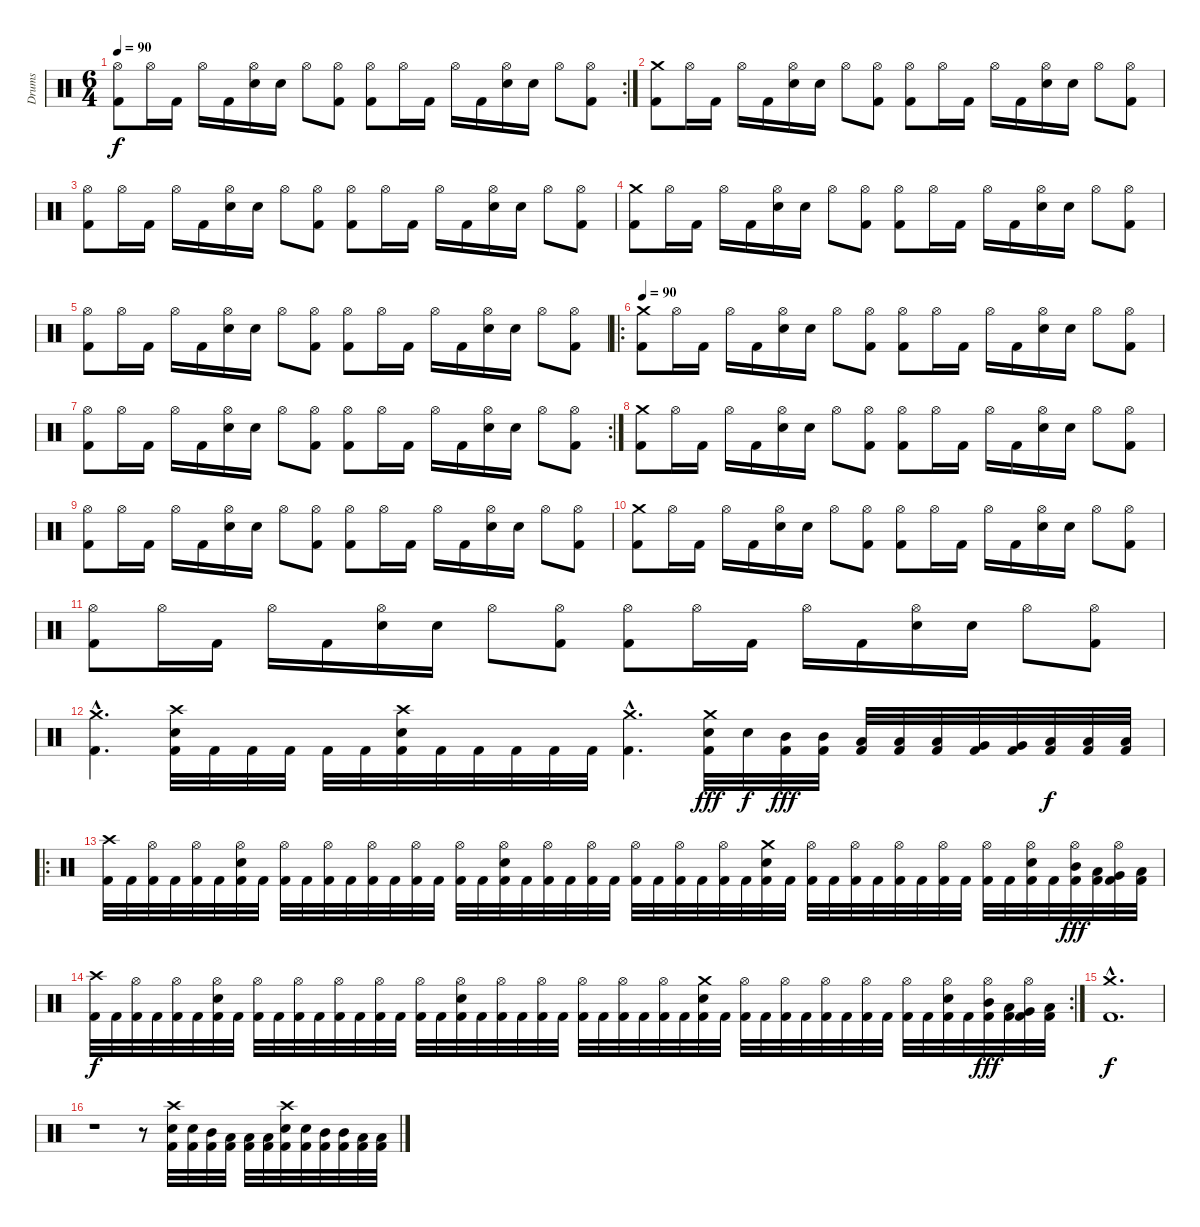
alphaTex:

\track ("Drums" "Drums") {instrument percussion}
\staff {score}
\articulation defaults
\rc 2
\ts (6 4)
\tempo 90
\clef neutral
\ks c
("Hi-Hat (open)" "Kick (hit) 2").8{dy f} "Hi-Hat (open)".16 "Kick (hit) 2".16 "Hi-Hat (open)".16 "Kick (hit) 2".16 ("Hi-Hat (open)" "Electric Snare (hit)").16 "Electric Snare (hit)".16 "Hi-Hat (open)".8 ("Hi-Hat (open)" "Kick (hit) 2").8 ("Hi-Hat (open)" "Kick (hit) 2").8 "Hi-Hat (open)".16 "Kick (hit) 2".16 "Hi-Hat (open)".16 "Kick (hit) 2".16 ("Hi-Hat (open)" "Electric Snare (hit)").16 "Electric Snare (hit)".16 "Hi-Hat (open)".8 ("Hi-Hat (open)" "Kick (hit) 2").8 |
("Crash medium (hit)" "Kick (hit) 2").8 "Hi-Hat (open)".16 "Kick (hit) 2".16 "Hi-Hat (open)".16 "Kick (hit) 2".16 ("Hi-Hat (open)" "Electric Snare (hit)").16 "Electric Snare (hit)".16 "Hi-Hat (open)".8 ("Hi-Hat (open)" "Kick (hit) 2").8 ("Hi-Hat (open)" "Kick (hit) 2").8 "Hi-Hat (open)".16 "Kick (hit) 2".16 "Hi-Hat (open)".16 "Kick (hit) 2".16 ("Hi-Hat (open)" "Electric Snare (hit)").16 "Electric Snare (hit)".16 "Hi-Hat (open)".8 ("Hi-Hat (open)" "Kick (hit) 2").8 |
("Hi-Hat (open)" "Kick (hit) 2").8 "Hi-Hat (open)".16 "Kick (hit) 2".16 "Hi-Hat (open)".16 "Kick (hit) 2".16 ("Hi-Hat (open)" "Electric Snare (hit)").16 "Electric Snare (hit)".16 "Hi-Hat (open)".8 ("Hi-Hat (open)" "Kick (hit) 2").8 ("Hi-Hat (open)" "Kick (hit) 2").8 "Hi-Hat (open)".16 "Kick (hit) 2".16 "Hi-Hat (open)".16 "Kick (hit) 2".16 ("Hi-Hat (open)" "Electric Snare (hit)").16 "Electric Snare (hit)".16 "Hi-Hat (open)".8 ("Hi-Hat (open)" "Kick (hit) 2").8 |
("Crash medium (hit)" "Kick (hit) 2").8 "Hi-Hat (open)".16 "Kick (hit) 2".16 "Hi-Hat (open)".16 "Kick (hit) 2".16 ("Hi-Hat (open)" "Electric Snare (hit)").16 "Electric Snare (hit)".16 "Hi-Hat (open)".8 ("Hi-Hat (open)" "Kick (hit) 2").8 ("Hi-Hat (open)" "Kick (hit) 2").8 "Hi-Hat (open)".16 "Kick (hit) 2".16 "Hi-Hat (open)".16 "Kick (hit) 2".16 ("Hi-Hat (open)" "Electric Snare (hit)").16 "Electric Snare (hit)".16 "Hi-Hat (open)".8 ("Hi-Hat (open)" "Kick (hit) 2").8 |
("Hi-Hat (open)" "Kick (hit) 2").8 "Hi-Hat (open)".16 "Kick (hit) 2".16 "Hi-Hat (open)".16 "Kick (hit) 2".16 ("Hi-Hat (open)" "Electric Snare (hit)").16 "Electric Snare (hit)".16 "Hi-Hat (open)".8 ("Hi-Hat (open)" "Kick (hit) 2").8 ("Hi-Hat (open)" "Kick (hit) 2").8 "Hi-Hat (open)".16 "Kick (hit) 2".16 "Hi-Hat (open)".16 "Kick (hit) 2".16 ("Hi-Hat (open)" "Electric Snare (hit)").16 "Electric Snare (hit)".16 "Hi-Hat (open)".8 ("Hi-Hat (open)" "Kick (hit) 2").8 |
\ro
\tempo 90
("Crash medium (hit)" "Kick (hit) 2").8 "Hi-Hat (open)".16 "Kick (hit) 2".16 "Hi-Hat (open)".16 "Kick (hit) 2".16 ("Hi-Hat (open)" "Electric Snare (hit)").16 "Electric Snare (hit)".16 "Hi-Hat (open)".8 ("Hi-Hat (open)" "Kick (hit) 2").8 ("Hi-Hat (open)" "Kick (hit) 2").8 "Hi-Hat (open)".16 "Kick (hit) 2".16 "Hi-Hat (open)".16 "Kick (hit) 2".16 ("Hi-Hat (open)" "Electric Snare (hit)").16 "Electric Snare (hit)".16 "Hi-Hat (open)".8 ("Hi-Hat (open)" "Kick (hit) 2").8 |
\rc 2
("Hi-Hat (open)" "Kick (hit) 2").8 "Hi-Hat (open)".16 "Kick (hit) 2".16 "Hi-Hat (open)".16 "Kick (hit) 2".16 ("Hi-Hat (open)" "Electric Snare (hit)").16 "Electric Snare (hit)".16 "Hi-Hat (open)".8 ("Hi-Hat (open)" "Kick (hit) 2").8 ("Hi-Hat (open)" "Kick (hit) 2").8 "Hi-Hat (open)".16 "Kick (hit) 2".16 "Hi-Hat (open)".16 "Kick (hit) 2".16 ("Hi-Hat (open)" "Electric Snare (hit)").16 "Electric Snare (hit)".16 "Hi-Hat (open)".8 ("Hi-Hat (open)" "Kick (hit) 2").8 |
("Crash medium (hit)" "Kick (hit) 2").8 "Hi-Hat (open)".16 "Kick (hit) 2".16 "Hi-Hat (open)".16 "Kick (hit) 2".16 ("Hi-Hat (open)" "Electric Snare (hit)").16 "Electric Snare (hit)".16 "Hi-Hat (open)".8 ("Hi-Hat (open)" "Kick (hit) 2").8 ("Hi-Hat (open)" "Kick (hit) 2").8 "Hi-Hat (open)".16 "Kick (hit) 2".16 "Hi-Hat (open)".16 "Kick (hit) 2".16 ("Hi-Hat (open)" "Electric Snare (hit)").16 "Electric Snare (hit)".16 "Hi-Hat (open)".8 ("Hi-Hat (open)" "Kick (hit) 2").8 |
("Hi-Hat (open)" "Kick (hit) 2").8 "Hi-Hat (open)".16 "Kick (hit) 2".16 "Hi-Hat (open)".16 "Kick (hit) 2".16 ("Hi-Hat (open)" "Electric Snare (hit)").16 "Electric Snare (hit)".16 "Hi-Hat (open)".8 ("Hi-Hat (open)" "Kick (hit) 2").8 ("Hi-Hat (open)" "Kick (hit) 2").8 "Hi-Hat (open)".16 "Kick (hit) 2".16 "Hi-Hat (open)".16 "Kick (hit) 2".16 ("Hi-Hat (open)" "Electric Snare (hit)").16 "Electric Snare (hit)".16 "Hi-Hat (open)".8 ("Hi-Hat (open)" "Kick (hit) 2").8 |
("Crash medium (hit)" "Kick (hit) 2").8 "Hi-Hat (open)".16 "Kick (hit) 2".16 "Hi-Hat (open)".16 "Kick (hit) 2".16 ("Hi-Hat (open)" "Electric Snare (hit)").16 "Electric Snare (hit)".16 "Hi-Hat (open)".8 ("Hi-Hat (open)" "Kick (hit) 2").8 ("Hi-Hat (open)" "Kick (hit) 2").8 "Hi-Hat (open)".16 "Kick (hit) 2".16 "Hi-Hat (open)".16 "Kick (hit) 2".16 ("Hi-Hat (open)" "Electric Snare (hit)").16 "Electric Snare (hit)".16 "Hi-Hat (open)".8 ("Hi-Hat (open)" "Kick (hit) 2").8 |
("Hi-Hat (open)" "Kick (hit) 2").8 "Hi-Hat (open)".16 "Kick (hit) 2".16 "Hi-Hat (open)".16 "Kick (hit) 2".16 ("Hi-Hat (open)" "Electric Snare (hit)").16 "Electric Snare (hit)".16 "Hi-Hat (open)".8 ("Hi-Hat (open)" "Kick (hit) 2").8 ("Hi-Hat (open)" "Kick (hit) 2").8 "Hi-Hat (open)".16 "Kick (hit) 2".16 "Hi-Hat (open)".16 "Kick (hit) 2".16 ("Hi-Hat (open)" "Electric Snare (hit)").16 "Electric Snare (hit)".16 "Hi-Hat (open)".8 ("Hi-Hat (open)" "Kick (hit) 2").8 |
("Crash medium (hit)"{hac} "Kick (hit) 2"{hac}).4{d} ("Crash high (hit)" "Electric Snare (hit)" "Kick (hit) 2").32 "Kick (hit) 2".32 "Kick (hit) 2".32 "Kick (hit) 2".32 "Kick (hit) 2".32 "Kick (hit) 2".32 ("Crash high (hit)" "Electric Snare (hit)" "Kick (hit) 2").32 "Kick (hit) 2".32 "Kick (hit) 2".32 "Kick (hit) 2".32 "Kick (hit) 2".32 "Kick (hit) 2".32 ("Crash medium (hit)"{hac} "Kick (hit) 2"{hac}).4{d} ("Crash medium (hit)" "Electric Snare (hit)" "Kick (hit) 2").32{dy fff} "Electric Snare (hit)".32{dy f} ("Mid Tom (hit)" "Kick (hit) 2").32{dy fff} ("Mid Tom (hit)" "Kick (hit) 2").32 ("Low Tom (hit)" "Kick (hit) 2").32 ("Low Tom (hit)" "Kick (hit) 2").32 ("Low Tom (hit)" "Kick (hit) 2").32 ("Very Low Tom (hit)" "Kick (hit) 2").32 ("Very Low Tom (hit)" "Kick (hit) 2").32 ("Low Floor Tom (hit)" "Kick (hit) 2").32{dy f} ("Low Floor Tom (hit)" "Kick (hit) 2").32 ("Low Floor Tom (hit)" "Kick (hit) 2").32 |
\ro
("Crash high (hit)" "Kick (hit) 2").32 "Kick (hit) 2".32 ("Hi-Hat (open)" "Kick (hit) 2").32 "Kick (hit) 2".32 ("Hi-Hat (open)" "Kick (hit) 2").32 "Kick (hit) 2".32 ("Hi-Hat (open)" "Electric Snare (hit)" "Kick (hit) 2").32 "Kick (hit) 2".32 ("Hi-Hat (open)" "Kick (hit) 2").32 "Kick (hit) 2".32 ("Hi-Hat (open)" "Kick (hit) 2").32 "Kick (hit) 2".32 ("Hi-Hat (open)" "Kick (hit) 2").32 "Kick (hit) 2".32 ("Hi-Hat (open)" "Kick (hit) 2").32 "Kick (hit) 2".32 ("Hi-Hat (open)" "Kick (hit) 2").32 "Kick (hit) 2".32 ("Hi-Hat (open)" "Electric Snare (hit)" "Kick (hit) 2").32 "Kick (hit) 2".32 ("Hi-Hat (open)" "Kick (hit) 2").32 "Kick (hit) 2".32 ("Hi-Hat (open)" "Kick (hit) 2").32 "Kick (hit) 2".32 ("Hi-Hat (open)" "Kick (hit) 2").32 "Kick (hit) 2".32 ("Hi-Hat (open)" "Kick (hit) 2").32 "Kick (hit) 2".32 ("Hi-Hat (open)" "Kick (hit) 2").32 "Kick (hit) 2".32 ("Crash medium (hit)" "Electric Snare (hit)" "Kick (hit) 2").32 "Kick (hit) 2".32 ("Hi-Hat (open)" "Kick (hit) 2").32 "Kick (hit) 2".32 ("Hi-Hat (open)" "Kick (hit) 2").32 "Kick (hit) 2".32 ("Hi-Hat (open)" "Kick (hit) 2").32 "Kick (hit) 2".32 ("Hi-Hat (open)" "Kick (hit) 2").32 "Kick (hit) 2".32 ("Hi-Hat (open)" "Kick (hit) 2").32 "Kick (hit) 2".32 ("Hi-Hat (open)" "Electric Snare (hit)" "Kick (hit) 2").32 "Kick (hit) 2".32 ("Hi-Hat (open)" "Mid Tom (hit)" "Kick (hit) 2").32{dy fff} ("Low Tom (hit)" "Kick (hit) 2").32 ("Hi-Hat (open)" "Very Low Tom (hit)" "Kick (hit) 2").32 ("Low Floor Tom (hit)" "Kick (hit) 2").32 |
\rc 2
("Crash high (hit)" "Kick (hit) 2").32{dy f} "Kick (hit) 2".32 ("Hi-Hat (open)" "Kick (hit) 2").32 "Kick (hit) 2".32 ("Hi-Hat (open)" "Kick (hit) 2").32 "Kick (hit) 2".32 ("Hi-Hat (open)" "Electric Snare (hit)" "Kick (hit) 2").32 "Kick (hit) 2".32 ("Hi-Hat (open)" "Kick (hit) 2").32 "Kick (hit) 2".32 ("Hi-Hat (open)" "Kick (hit) 2").32 "Kick (hit) 2".32 ("Hi-Hat (open)" "Kick (hit) 2").32 "Kick (hit) 2".32 ("Hi-Hat (open)" "Kick (hit) 2").32 "Kick (hit) 2".32 ("Hi-Hat (open)" "Kick (hit) 2").32 "Kick (hit) 2".32 ("Hi-Hat (open)" "Electric Snare (hit)" "Kick (hit) 2").32 "Kick (hit) 2".32 ("Hi-Hat (open)" "Kick (hit) 2").32 "Kick (hit) 2".32 ("Hi-Hat (open)" "Kick (hit) 2").32 "Kick (hit) 2".32 ("Hi-Hat (open)" "Kick (hit) 2").32 "Kick (hit) 2".32 ("Hi-Hat (open)" "Kick (hit) 2").32 "Kick (hit) 2".32 ("Hi-Hat (open)" "Kick (hit) 2").32 "Kick (hit) 2".32 ("Crash medium (hit)" "Electric Snare (hit)" "Kick (hit) 2").32 "Kick (hit) 2".32 ("Hi-Hat (open)" "Kick (hit) 2").32 "Kick (hit) 2".32 ("Hi-Hat (open)" "Kick (hit) 2").32 "Kick (hit) 2".32 ("Hi-Hat (open)" "Kick (hit) 2").32 "Kick (hit) 2".32 ("Hi-Hat (open)" "Kick (hit) 2").32 "Kick (hit) 2".32 ("Hi-Hat (open)" "Kick (hit) 2").32 "Kick (hit) 2".32 ("Hi-Hat (open)" "Electric Snare (hit)" "Kick (hit) 2").32 "Kick (hit) 2".32 ("Hi-Hat (open)" "Mid Tom (hit)" "Kick (hit) 2").32{dy fff} ("Low Tom (hit)" "Kick (hit) 2").32 ("Hi-Hat (open)" "Very Low Tom (hit)" "Kick (hit) 2").32 ("Low Floor Tom (hit)" "Kick (hit) 2").32 |
("Crash medium (hit)"{hac} "Kick (hit) 2"{hac}).1{d dy f} |
r.1 r.8 ("Crash high (hit)" "Electric Snare (hit)" "Kick (hit) 2").32 ("Electric Snare (hit)" "Kick (hit) 2").32 ("Mid Tom (hit)" "Kick (hit) 2").32 ("Low Tom (hit)" "Kick (hit) 2").32 ("Low Tom (hit)" "Kick (hit) 2").32 ("Low Tom (hit)" "Kick (hit) 2").32 ("Crash high (hit)" "Electric Snare (hit)" "Kick (hit) 2").32 ("Electric Snare (hit)" "Kick (hit) 2").32 ("Mid Tom (hit)" "Kick (hit) 2").32 ("Mid Tom (hit)" "Kick (hit) 2").32 ("Low Tom (hit)" "Kick (hit) 2").32 ("Low Tom (hit)" "Kick (hit) 2").32
